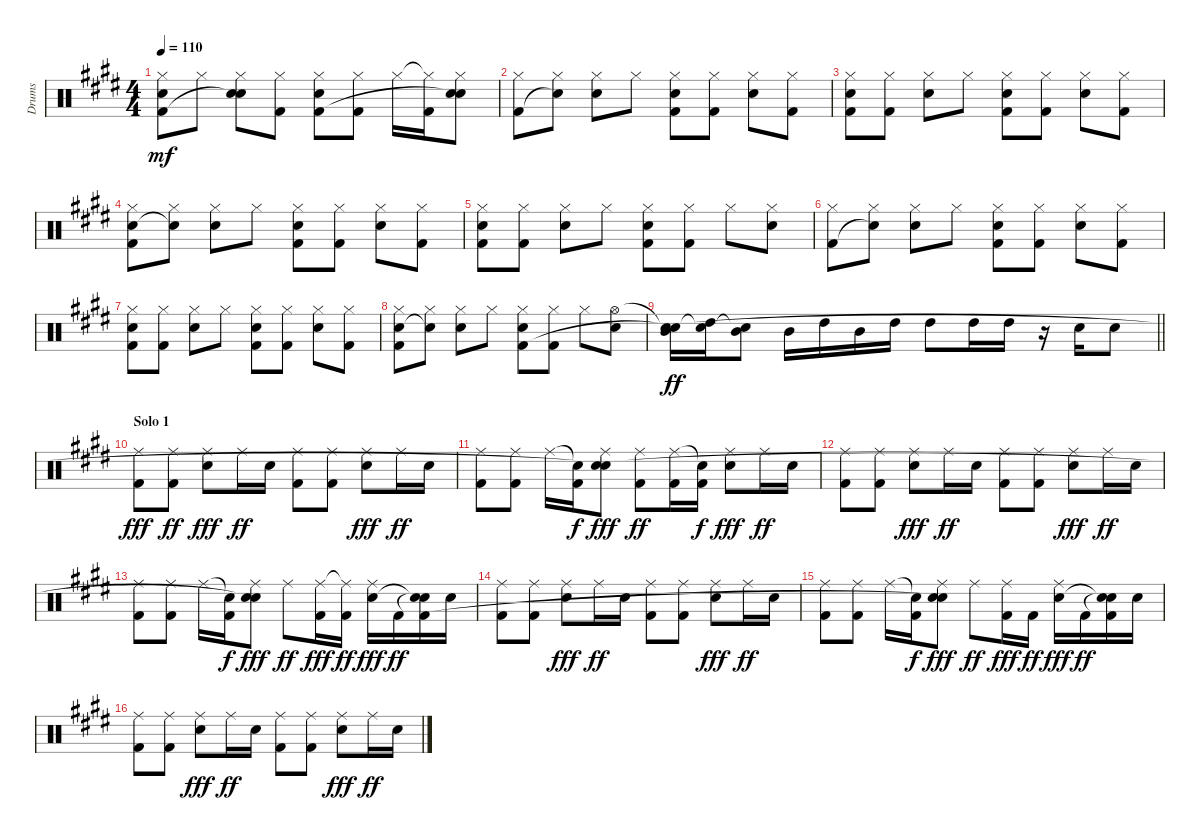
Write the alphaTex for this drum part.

\track ("Drums" "Drums") {instrument percussion}
\staff {score}
\articulation defaults
\ts (4 4)
\tempo 110
\clef neutral
\ks c#minor
("Hi-Hat (closed)" "Electric Snare (hit)" "Kick (hit) 2").8{dy mf} "Hi-Hat (closed)".8 ("Hi-Hat (closed)" "Electric Snare (hit)" "Snare (hit)"{t}).8 ("Hi-Hat (closed)" "Kick (hit) 2").8 ("Hi-Hat (closed)" "Electric Snare (hit)" "Kick (hit) 2").8 ("Hi-Hat (closed)" "Kick (hit) 2").8 "Hi-Hat (closed)".16 ("Hi-Hat (closed)"{t} "Kick (hit) 2").16 ("Hi-Hat (closed)" "Electric Snare (hit)" "Snare (hit)"{t}).8 |
("Hi-Hat (closed)" "Kick (hit) 2").8 ("Hi-Hat (closed)" "Snare (hit)"{t}).8 ("Hi-Hat (closed)" "Electric Snare (hit)").8 "Hi-Hat (closed)".8 ("Hi-Hat (closed)" "Electric Snare (hit)" "Kick (hit) 2").8 ("Hi-Hat (closed)" "Kick (hit) 2").8 ("Hi-Hat (closed)" "Electric Snare (hit)").8 ("Hi-Hat (closed)" "Kick (hit) 2").8 |
("Hi-Hat (closed)" "Electric Snare (hit)" "Kick (hit) 2").8 ("Hi-Hat (closed)" "Kick (hit) 2").8 ("Hi-Hat (closed)" "Electric Snare (hit)").8 "Hi-Hat (closed)".8 ("Hi-Hat (closed)" "Electric Snare (hit)" "Kick (hit) 2").8 ("Hi-Hat (closed)" "Kick (hit) 2").8 ("Hi-Hat (closed)" "Electric Snare (hit)").8 ("Hi-Hat (closed)" "Kick (hit) 2").8 |
("Hi-Hat (closed)" "Electric Snare (hit)" "Kick (hit) 2").8 ("Hi-Hat (closed)" "Snare (hit)"{t}).8 ("Hi-Hat (closed)" "Electric Snare (hit)").8 "Hi-Hat (closed)".8 ("Hi-Hat (closed)" "Electric Snare (hit)" "Kick (hit) 2").8 ("Hi-Hat (closed)" "Kick (hit) 2").8 ("Hi-Hat (closed)" "Electric Snare (hit)").8 ("Hi-Hat (closed)" "Kick (hit) 2").8 |
("Hi-Hat (closed)" "Electric Snare (hit)" "Kick (hit) 2").8 ("Hi-Hat (closed)" "Kick (hit) 2").8 ("Hi-Hat (closed)" "Electric Snare (hit)").8 "Hi-Hat (closed)".8 ("Hi-Hat (closed)" "Electric Snare (hit)" "Kick (hit) 2").8 ("Hi-Hat (closed)" "Kick (hit) 2").8 "Hi-Hat (closed)".8 ("Hi-Hat (closed)" "Electric Snare (hit)").8 |
("Hi-Hat (closed)" "Kick (hit) 2").8 ("Hi-Hat (closed)" "Snare (hit)"{t}).8 ("Hi-Hat (closed)" "Electric Snare (hit)").8 "Hi-Hat (closed)".8 ("Hi-Hat (closed)" "Electric Snare (hit)" "Kick (hit) 2").8 ("Hi-Hat (closed)" "Kick (hit) 2").8 ("Hi-Hat (closed)" "Electric Snare (hit)").8 ("Hi-Hat (closed)" "Kick (hit) 2").8 |
("Hi-Hat (closed)" "Electric Snare (hit)" "Kick (hit) 2").8 ("Hi-Hat (closed)" "Kick (hit) 2").8 ("Hi-Hat (closed)" "Electric Snare (hit)").8 "Hi-Hat (closed)".8 ("Hi-Hat (closed)" "Electric Snare (hit)" "Kick (hit) 2").8 ("Hi-Hat (closed)" "Kick (hit) 2").8 ("Hi-Hat (closed)" "Electric Snare (hit)").8 ("Hi-Hat (closed)" "Kick (hit) 2").8 |
("Hi-Hat (closed)" "Electric Snare (hit)" "Kick (hit) 2").8 ("Hi-Hat (closed)" "Snare (hit)"{t}).8 ("Hi-Hat (closed)" "Electric Snare (hit)").8 "Hi-Hat (closed)".8 ("Hi-Hat (closed)" "Electric Snare (hit)" "Kick (hit) 2").8 ("Hi-Hat (closed)" "Kick (hit) 2").8 "Hi-Hat (closed)".8 ("Hi-Hat (open)" "Electric Snare (hit)").8 |
\barLineRight lightlight
("Snare (hit)"{t} "Mid Tom (hit)" "Snare (hit)"{t}).16{dy ff} ("Snare (hit)"{t} "High Tom (hit)").16 ("Snare (hit)"{t} "Mid Tom (hit)").8 "Mid Tom (hit)".16 "High Tom (hit)".16 "Mid Tom (hit)".16 "High Tom (hit)".16 "High Tom (hit)".8 "High Tom (hit)".16 "High Tom (hit)".16 r.16 "Electric Snare (hit)".16 "Electric Snare (hit)".8 |
\section ("" "Solo 1")
("Ride (middle)" "Kick (hit) 2").8{dy fff} ("Ride (middle)" "Kick (hit) 2").8{dy ff} ("Ride (middle)" "Electric Snare (hit)").8{dy fff} "Ride (middle)".16{dy ff} "Electric Snare (hit)".16 ("Ride (middle)" "Kick (hit) 2").8 ("Ride (middle)" "Kick (hit) 2").8 ("Ride (middle)" "Electric Snare (hit)").8{dy fff} "Ride (middle)".16{dy ff} "Electric Snare (hit)".16 |
("Ride (middle)" "Kick (hit) 2").8 ("Ride (middle)" "Kick (hit) 2").8 "Ride (middle)".16 ("Snare (hit)"{t} "Kick (hit) 2").16{dy f} ("Ride (middle)" "Electric Snare (hit)" "Snare (hit)"{t}).8{dy fff} ("Ride (middle)" "Kick (hit) 2").8{dy ff} ("Ride (middle)" "Kick (hit) 2").16 ("Snare (hit)"{t} "Kick (hit) 2").16{dy f} ("Ride (middle)" "Electric Snare (hit)").8{dy fff} "Ride (middle)".16{dy ff} "Electric Snare (hit)".16 |
("Ride (middle)" "Kick (hit) 2").8 ("Ride (middle)" "Kick (hit) 2").8 ("Ride (middle)" "Electric Snare (hit)").8{dy fff} "Ride (middle)".16{dy ff} "Electric Snare (hit)".16 ("Ride (middle)" "Kick (hit) 2").8 ("Ride (middle)" "Kick (hit) 2").8 ("Ride (middle)" "Electric Snare (hit)").8{dy fff} "Ride (middle)".16{dy ff} "Electric Snare (hit)".16 |
("Ride (middle)" "Kick (hit) 2").8 ("Ride (middle)" "Kick (hit) 2").8 "Ride (middle)".16 ("Snare (hit)"{t} "Kick (hit) 2").16{dy f} ("Ride (middle)" "Electric Snare (hit)" "Snare (hit)"{t}).8{dy fff} "Ride (middle)".8{dy ff} ("Ride (middle)" "Kick (hit) 2").16{dy fff} ("Ride (middle)"{t} "Kick (hit) 2").16{dy ff} ("Ride (middle)" "Electric Snare (hit)").16{dy fff} "Kick (hit) 2".16{dy ff} ("Snare (hit)"{t} "Snare (hit)"{t} "Kick (hit) 2").16 "Electric Snare (hit)".16 |
("Ride (middle)" "Kick (hit) 2").8 ("Ride (middle)" "Kick (hit) 2").8 ("Ride (middle)" "Electric Snare (hit)").8{dy fff} "Ride (middle)".16{dy ff} "Electric Snare (hit)".16 ("Ride (middle)" "Kick (hit) 2").8 ("Ride (middle)" "Kick (hit) 2").8 ("Ride (middle)" "Electric Snare (hit)").8{dy fff} "Ride (middle)".16{dy ff} "Electric Snare (hit)".16 |
("Ride (middle)" "Kick (hit) 2").8 ("Ride (middle)" "Kick (hit) 2").8 "Ride (middle)".16 ("Snare (hit)"{t} "Kick (hit) 2").16{dy f} ("Ride (middle)" "Electric Snare (hit)" "Snare (hit)"{t}).8{dy fff} "Ride (middle)".8{dy ff} ("Ride (middle)" "Kick (hit) 2").16{dy fff} "Kick (hit) 2".16{dy ff} ("Ride (middle)" "Electric Snare (hit)").16{dy fff} "Kick (hit) 2".16{dy ff} ("Snare (hit)"{t} "Snare (hit)"{t} "Kick (hit) 2").16 "Electric Snare (hit)".16 |
("Ride (middle)" "Kick (hit) 2").8 ("Ride (middle)" "Kick (hit) 2").8 ("Ride (middle)" "Electric Snare (hit)").8{dy fff} "Ride (middle)".16{dy ff} "Electric Snare (hit)".16 ("Ride (middle)" "Kick (hit) 2").8 ("Ride (middle)" "Kick (hit) 2").8 ("Ride (middle)" "Electric Snare (hit)").8{dy fff} "Ride (middle)".16{dy ff} "Electric Snare (hit)".16
